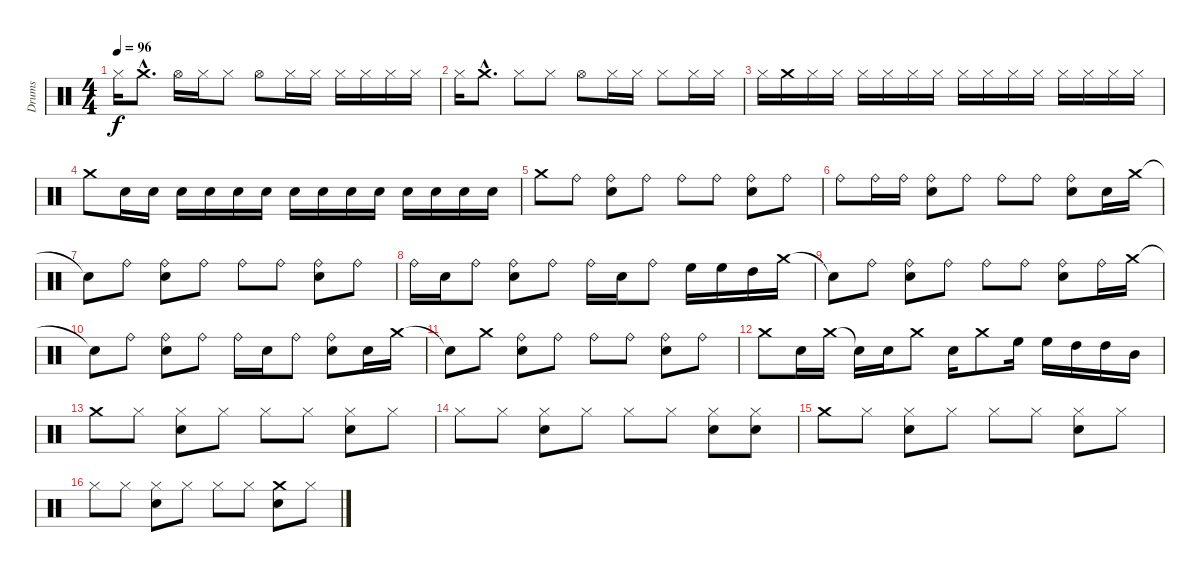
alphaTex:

\track ("Drums" "Drums") {instrument percussion}
\staff {score}
\articulation defaults
\ts (4 4)
\tempo 96
\clef neutral
\ks c "Hi-Hat (closed)".16{dy f} "Crash medium (hit)"{hac}.8{d} "Hi-Hat (open)".16 "Hi-Hat (closed)".16 "Hi-Hat (closed)".8 "Hi-Hat (open)".8 "Hi-Hat (closed)".16 "Hi-Hat (closed)".16 "Hi-Hat (closed)".16 "Hi-Hat (closed)".16 "Hi-Hat (closed)".16 "Hi-Hat (closed)".16
|
"Hi-Hat (closed)".16 "Crash medium (hit)"{hac}.8{d} "Hi-Hat (closed)".8 "Hi-Hat (closed)".8 "Hi-Hat (open)".8 "Hi-Hat (closed)".16 "Hi-Hat (closed)".16 "Hi-Hat (closed)".8 "Hi-Hat (closed)".16 "Hi-Hat (closed)".16 |
"Hi-Hat (closed)".16 "Crash medium (hit)".16 "Hi-Hat (closed)".16 "Hi-Hat (closed)".16 "Hi-Hat (closed)".16 "Hi-Hat (closed)".16 "Hi-Hat (closed)".16 "Hi-Hat (closed)".16 "Hi-Hat (closed)".16 "Hi-Hat (closed)".16 "Hi-Hat (closed)".16 "Hi-Hat (closed)".16 "Hi-Hat (closed)".16 "Hi-Hat (closed)".16 "Hi-Hat (closed)".16 "Hi-Hat (closed)".16 |
"Crash medium (hit)".8 "Electric Snare (hit)".16 "Electric Snare (hit)".16 "Electric Snare (hit)".16 "Electric Snare (hit)".16 "Electric Snare (hit)".16 "Electric Snare (hit)".16 "Electric Snare (hit)".16 "Electric Snare (hit)".16 "Electric Snare (hit)".16 "Electric Snare (hit)".16 "Electric Snare (hit)".16 "Electric Snare (hit)".16 "Electric Snare (hit)".16 "Electric Snare (hit)".16 |
"Crash medium (hit)".8 "Ride (bell)".8 ("Ride (bell)" "Electric Snare (hit)").8 "Ride (bell)".8 "Ride (bell)".8 "Ride (bell)".8 ("Ride (bell)" "Electric Snare (hit)").8 "Ride (bell)".8 |
"Ride (bell)".8 "Ride (bell)".16 "Ride (bell)".16 ("Ride (bell)" "Electric Snare (hit)").8 "Ride (bell)".8 "Ride (bell)".8 "Ride (bell)".8 ("Ride (bell)" "Electric Snare (hit)").8 "Electric Snare (hit)".16 "Crash medium (hit)".16 |
"Snare (hit)"{t}.8 "Ride (bell)".8 ("Ride (bell)" "Electric Snare (hit)").8 "Ride (bell)".8 "Ride (bell)".8 "Ride (bell)".8 ("Ride (bell)" "Electric Snare (hit)").8 "Ride (bell)".8 |
"Ride (bell)".16 "Electric Snare (hit)".16 "Ride (bell)".8 ("Ride (bell)" "Electric Snare (hit)").8 "Ride (bell)".8 "Ride (bell)".16 "Electric Snare (hit)".16 "Ride (bell)".8 "High Floor Tom (hit)".16 "High Floor Tom (hit)".16 "High Tom (hit)".16 "Crash medium (hit)".16 |
"Snare (hit)"{t}.8 "Ride (bell)".8 ("Ride (bell)" "Electric Snare (hit)").8 "Ride (bell)".8 "Ride (bell)".8 "Ride (bell)".8 ("Ride (bell)" "Electric Snare (hit)").8 "Ride (bell)".16 "Crash medium (hit)".16 |
"Snare (hit)"{t}.8 "Ride (bell)".8 ("Ride (bell)" "Electric Snare (hit)").8 "Ride (bell)".8 "Ride (bell)".16 "Electric Snare (hit)".16 "Ride (bell)".8 ("Ride (bell)" "Electric Snare (hit)").8 "Electric Snare (hit)".16 "Crash medium (hit)".16 |
"Snare (hit)"{t}.8 "Crash medium (hit)".8 ("Ride (bell)" "Electric Snare (hit)").8 "Ride (bell)".8 "Ride (bell)".8 "Ride (bell)".8 ("Ride (bell)" "Electric Snare (hit)").8 "Ride (bell)".8 |
"Crash medium (hit)".8 "Electric Snare (hit)".16 "Crash medium (hit)".16 "Snare (hit)"{t}.16 "Electric Snare (hit)".16 "Crash medium (hit)".8 "Electric Snare (hit)".16 "Crash medium (hit)".8 "High Floor Tom (hit)".16 "High Floor Tom (hit)".16 "High Tom (hit)".16 "High Tom (hit)".16 "Mid Tom (hit)".16 |
"Crash medium (hit)".8 "Hi-Hat (closed)".8 ("Hi-Hat (closed)" "Electric Snare (hit)").8 "Hi-Hat (closed)".8 "Hi-Hat (closed)".8 "Hi-Hat (closed)".8 ("Hi-Hat (closed)" "Electric Snare (hit)").8 "Hi-Hat (closed)".8 |
"Hi-Hat (closed)".8 "Hi-Hat (closed)".8 ("Hi-Hat (closed)" "Electric Snare (hit)").8 "Hi-Hat (closed)".8 "Hi-Hat (closed)".8 "Hi-Hat (closed)".8 ("Hi-Hat (closed)" "Electric Snare (hit)").8 ("Hi-Hat (closed)" "Electric Snare (hit)").8 |
"Crash medium (hit)".8 "Hi-Hat (closed)".8 ("Hi-Hat (closed)" "Electric Snare (hit)").8 "Hi-Hat (closed)".8 "Hi-Hat (closed)".8 "Hi-Hat (closed)".8 ("Hi-Hat (closed)" "Electric Snare (hit)").8 "Hi-Hat (closed)".8 |
"Hi-Hat (closed)".8 "Hi-Hat (closed)".8 ("Hi-Hat (closed)" "Electric Snare (hit)").8 "Hi-Hat (closed)".8 "Hi-Hat (closed)".8 "Hi-Hat (closed)".8 ("Crash medium (hit)" "Electric Snare (hit)").8 "Hi-Hat (closed)".8
